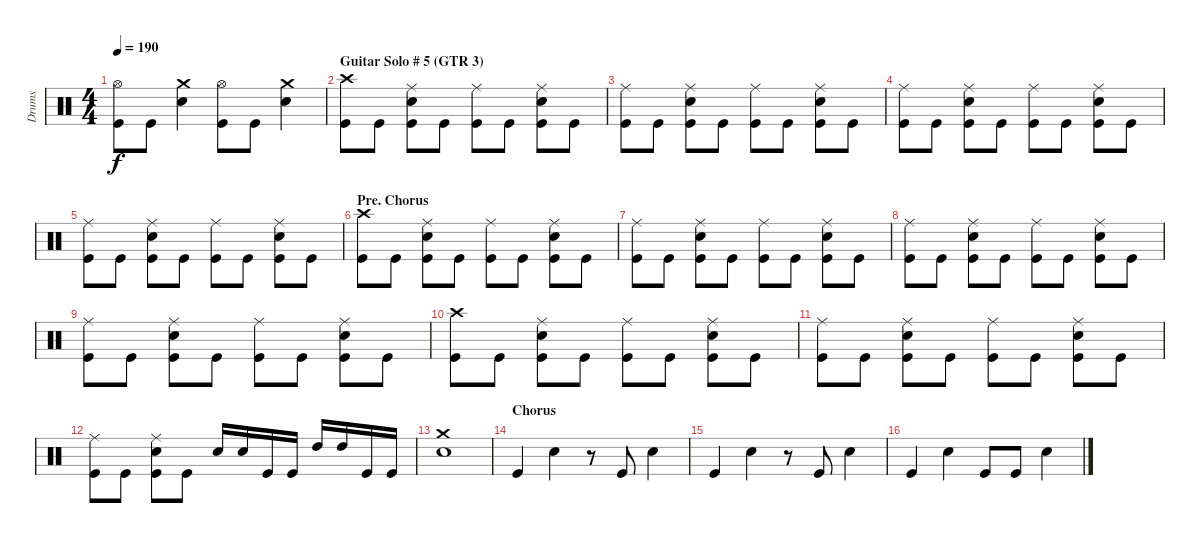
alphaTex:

\track ("Drums" "Drums") {instrument percussion}
\staff {score}
\articulation defaults
\ts (4 4)
\tempo 190
\clef neutral
\ks c
("Hi-Hat (open)" "Kick (hit)").8{dy f} "Kick (hit)".8 ("Crash medium (hit)" "Electric Snare (hit)").4 ("Hi-Hat (open)" "Kick (hit)").8 "Kick (hit)".8 ("Crash medium (hit)" "Electric Snare (hit)").4 |
\section ("" "Guitar Solo # 5 (GTR 3)")
("Crash high (hit)" "Kick (hit)").8 "Kick (hit)".8 ("Ride (middle)" "Electric Snare (hit)" "Kick (hit)").8 "Kick (hit)".8 ("Ride (middle)" "Kick (hit)").8 "Kick (hit)".8 ("Ride (middle)" "Electric Snare (hit)" "Kick (hit)").8 "Kick (hit)".8 |
("Ride (middle)" "Kick (hit)").8 "Kick (hit)".8 ("Ride (middle)" "Electric Snare (hit)" "Kick (hit)").8 "Kick (hit)".8 ("Ride (middle)" "Kick (hit)").8 "Kick (hit)".8 ("Ride (middle)" "Electric Snare (hit)" "Kick (hit)").8 "Kick (hit)".8 |
("Ride (middle)" "Kick (hit)").8 "Kick (hit)".8 ("Ride (middle)" "Electric Snare (hit)" "Kick (hit)").8 "Kick (hit)".8 ("Ride (middle)" "Kick (hit)").8 "Kick (hit)".8 ("Ride (middle)" "Electric Snare (hit)" "Kick (hit)").8 "Kick (hit)".8 |
("Ride (middle)" "Kick (hit)").8 "Kick (hit)".8 ("Ride (middle)" "Electric Snare (hit)" "Kick (hit)").8 "Kick (hit)".8 ("Ride (middle)" "Kick (hit)").8 "Kick (hit)".8 ("Ride (middle)" "Electric Snare (hit)" "Kick (hit)").8 "Kick (hit)".8 |
\section ("" "Pre. Chorus")
("Crash high (hit)" "Kick (hit)").8 "Kick (hit)".8 ("Ride (middle)" "Electric Snare (hit)" "Kick (hit)").8 "Kick (hit)".8 ("Ride (middle)" "Kick (hit)").8 "Kick (hit)".8 ("Ride (middle)" "Electric Snare (hit)" "Kick (hit)").8 "Kick (hit)".8 |
("Ride (middle)" "Kick (hit)").8 "Kick (hit)".8 ("Ride (middle)" "Electric Snare (hit)" "Kick (hit)").8 "Kick (hit)".8 ("Ride (middle)" "Kick (hit)").8 "Kick (hit)".8 ("Ride (middle)" "Electric Snare (hit)" "Kick (hit)").8 "Kick (hit)".8 |
("Ride (middle)" "Kick (hit)").8 "Kick (hit)".8 ("Ride (middle)" "Electric Snare (hit)" "Kick (hit)").8 "Kick (hit)".8 ("Ride (middle)" "Kick (hit)").8 "Kick (hit)".8 ("Ride (middle)" "Electric Snare (hit)" "Kick (hit)").8 "Kick (hit)".8 |
("Ride (middle)" "Kick (hit)").8 "Kick (hit)".8 ("Ride (middle)" "Electric Snare (hit)" "Kick (hit)").8 "Kick (hit)".8 ("Ride (middle)" "Kick (hit)").8 "Kick (hit)".8 ("Ride (middle)" "Electric Snare (hit)" "Kick (hit)").8 "Kick (hit)".8 |
("Crash high (hit)" "Kick (hit)").8 "Kick (hit)".8 ("Ride (middle)" "Electric Snare (hit)" "Kick (hit)").8 "Kick (hit)".8 ("Ride (middle)" "Kick (hit)").8 "Kick (hit)".8 ("Ride (middle)" "Electric Snare (hit)" "Kick (hit)").8 "Kick (hit)".8 |
("Ride (middle)" "Kick (hit)").8 "Kick (hit)".8 ("Ride (middle)" "Electric Snare (hit)" "Kick (hit)").8 "Kick (hit)".8 ("Ride (middle)" "Kick (hit)").8 "Kick (hit)".8 ("Ride (middle)" "Electric Snare (hit)" "Kick (hit)").8 "Kick (hit)".8 |
("Ride (middle)" "Kick (hit)").8 "Kick (hit)".8 ("Ride (middle)" "Electric Snare (hit)" "Kick (hit)").8 "Kick (hit)".8 "Electric Snare (hit)".16 "Electric Snare (hit)".16 "Kick (hit)".16 "Kick (hit)".16 "High Tom (hit)".16 "High Tom (hit)".16 "Kick (hit)".16 "Kick (hit)".16 |
("Crash medium (hit)" "Electric Snare (hit)").1 |
\section ("" "Chorus")
"Kick (hit)".4 "Electric Snare (hit)".4 r.8 "Kick (hit)".8 "Electric Snare (hit)".4 |
"Kick (hit)".4 "Electric Snare (hit)".4 r.8 "Kick (hit)".8 "Electric Snare (hit)".4 |
"Kick (hit)".4 "Electric Snare (hit)".4 "Kick (hit)".8 "Kick (hit)".8 "Electric Snare (hit)".4
